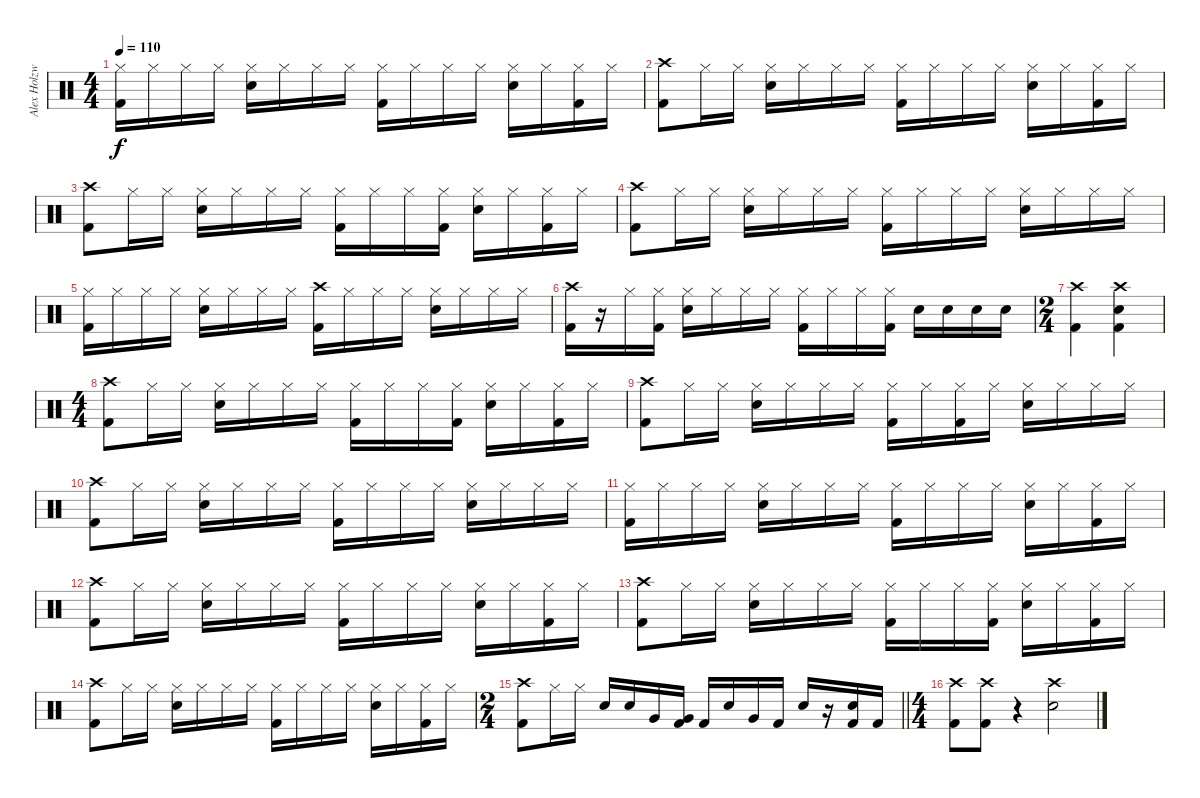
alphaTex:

\track ("Alex Holzwarth (Drums)" "Alex Holzw") {instrument percussion}
\staff {score}
\articulation defaults
\ts (4 4)
\tempo 110
\clef neutral
\ks c
("Hi-Hat (closed)" "Kick (hit) 2").16{dy f} "Hi-Hat (closed)".16 "Hi-Hat (closed)".16 "Hi-Hat (closed)".16 ("Hi-Hat (closed)" "Electric Snare (hit)").16 "Hi-Hat (closed)".16 "Hi-Hat (closed)".16 "Hi-Hat (closed)".16 ("Hi-Hat (closed)" "Kick (hit) 2").16 "Hi-Hat (closed)".16 "Hi-Hat (closed)".16 "Hi-Hat (closed)".16 ("Hi-Hat (closed)" "Electric Snare (hit)").16 "Hi-Hat (closed)".16 ("Hi-Hat (closed)" "Kick (hit) 2").16 "Hi-Hat (closed)".16 |
("Crash high (hit)" "Kick (hit) 2").8 "Hi-Hat (closed)".16 "Hi-Hat (closed)".16 ("Hi-Hat (closed)" "Electric Snare (hit)").16 "Hi-Hat (closed)".16 "Hi-Hat (closed)".16 "Hi-Hat (closed)".16 ("Hi-Hat (closed)" "Kick (hit) 2").16 "Hi-Hat (closed)".16 "Hi-Hat (closed)".16 "Hi-Hat (closed)".16 ("Hi-Hat (closed)" "Electric Snare (hit)").16 "Hi-Hat (closed)".16 ("Hi-Hat (closed)" "Kick (hit) 2").16 "Hi-Hat (closed)".16 |
("Crash high (hit)" "Kick (hit) 2").8 "Hi-Hat (closed)".16 "Hi-Hat (closed)".16 ("Hi-Hat (closed)" "Electric Snare (hit)").16 "Hi-Hat (closed)".16 "Hi-Hat (closed)".16 "Hi-Hat (closed)".16 ("Hi-Hat (closed)" "Kick (hit) 2").16 "Hi-Hat (closed)".16 "Hi-Hat (closed)".16 ("Hi-Hat (closed)" "Kick (hit) 2").16 ("Hi-Hat (closed)" "Electric Snare (hit)").16 "Hi-Hat (closed)".16 ("Hi-Hat (closed)" "Kick (hit) 2").16 "Hi-Hat (closed)".16 |
("Crash high (hit)" "Kick (hit) 2").8 "Hi-Hat (closed)".16 "Hi-Hat (closed)".16 ("Hi-Hat (closed)" "Electric Snare (hit)").16 "Hi-Hat (closed)".16 "Hi-Hat (closed)".16 "Hi-Hat (closed)".16 ("Hi-Hat (closed)" "Kick (hit) 2").16 "Hi-Hat (closed)".16 "Hi-Hat (closed)".16 "Hi-Hat (closed)".16 ("Hi-Hat (closed)" "Electric Snare (hit)").16 "Hi-Hat (closed)".16 "Hi-Hat (closed)".16 "Hi-Hat (closed)".16 |
("Hi-Hat (closed)" "Kick (hit) 2").16 "Hi-Hat (closed)".16 "Hi-Hat (closed)".16 "Hi-Hat (closed)".16 ("Hi-Hat (closed)" "Electric Snare (hit)").16 "Hi-Hat (closed)".16 "Hi-Hat (closed)".16 "Hi-Hat (closed)".16 ("Crash high (hit)" "Kick (hit) 2").16 "Hi-Hat (closed)".16 "Hi-Hat (closed)".16 "Hi-Hat (closed)".16 ("Hi-Hat (closed)" "Electric Snare (hit)").16 "Hi-Hat (closed)".16 "Hi-Hat (closed)".16 "Hi-Hat (closed)".16 |
("Crash high (hit)" "Kick (hit) 2").16 r.16 "Hi-Hat (closed)".16 ("Hi-Hat (closed)" "Kick (hit) 2").16 ("Hi-Hat (closed)" "Electric Snare (hit)").16 "Hi-Hat (closed)".16 "Hi-Hat (closed)".16 "Hi-Hat (closed)".16 ("Hi-Hat (closed)" "Kick (hit) 2").16 "Hi-Hat (closed)".16 "Hi-Hat (closed)".16 ("Hi-Hat (closed)" "Kick (hit) 2").16 "Electric Snare (hit)".16 "Electric Snare (hit)".16 "Electric Snare (hit)".16 "Electric Snare (hit)".16 |
\ts (2 4)
("Crash high (hit)" "Kick (hit) 2").4 ("Crash high (hit)" "Electric Snare (hit)" "Kick (hit) 2").4 |
\ts (4 4)
("Crash high (hit)" "Kick (hit) 2").8 "Hi-Hat (closed)".16 "Hi-Hat (closed)".16 ("Hi-Hat (closed)" "Electric Snare (hit)").16 "Hi-Hat (closed)".16 "Hi-Hat (closed)".16 "Hi-Hat (closed)".16 ("Hi-Hat (closed)" "Kick (hit) 2").16 "Hi-Hat (closed)".16 "Hi-Hat (closed)".16 ("Hi-Hat (closed)" "Kick (hit) 2").16 ("Hi-Hat (closed)" "Electric Snare (hit)").16 "Hi-Hat (closed)".16 ("Hi-Hat (closed)" "Kick (hit) 2").16 "Hi-Hat (closed)".16 |
("Crash high (hit)" "Kick (hit) 2").8 "Hi-Hat (closed)".16 "Hi-Hat (closed)".16 ("Hi-Hat (closed)" "Electric Snare (hit)").16 "Hi-Hat (closed)".16 "Hi-Hat (closed)".16 "Hi-Hat (closed)".16 ("Hi-Hat (closed)" "Kick (hit) 2").16 "Hi-Hat (closed)".16 ("Hi-Hat (closed)" "Kick (hit) 2").16 "Hi-Hat (closed)".16 ("Hi-Hat (closed)" "Electric Snare (hit)").16 "Hi-Hat (closed)".16 "Hi-Hat (closed)".16 "Hi-Hat (closed)".16 |
("Crash high (hit)" "Kick (hit) 2").8 "Hi-Hat (closed)".16 "Hi-Hat (closed)".16 ("Hi-Hat (closed)" "Electric Snare (hit)").16 "Hi-Hat (closed)".16 "Hi-Hat (closed)".16 "Hi-Hat (closed)".16 ("Hi-Hat (closed)" "Kick (hit) 2").16 "Hi-Hat (closed)".16 "Hi-Hat (closed)".16 "Hi-Hat (closed)".16 ("Hi-Hat (closed)" "Electric Snare (hit)").16 "Hi-Hat (closed)".16 "Hi-Hat (closed)".16 "Hi-Hat (closed)".16 |
("Hi-Hat (closed)" "Kick (hit) 2").16 "Hi-Hat (closed)".16 "Hi-Hat (closed)".16 "Hi-Hat (closed)".16 ("Hi-Hat (closed)" "Electric Snare (hit)").16 "Hi-Hat (closed)".16 "Hi-Hat (closed)".16 "Hi-Hat (closed)".16 ("Hi-Hat (closed)" "Kick (hit) 2").16 "Hi-Hat (closed)".16 "Hi-Hat (closed)".16 "Hi-Hat (closed)".16 ("Hi-Hat (closed)" "Electric Snare (hit)").16 "Hi-Hat (closed)".16 ("Hi-Hat (closed)" "Kick (hit) 2").16 "Hi-Hat (closed)".16 |
("Crash high (hit)" "Kick (hit) 2").8 "Hi-Hat (closed)".16 "Hi-Hat (closed)".16 ("Hi-Hat (closed)" "Electric Snare (hit)").16 "Hi-Hat (closed)".16 "Hi-Hat (closed)".16 "Hi-Hat (closed)".16 ("Hi-Hat (closed)" "Kick (hit) 2").16 "Hi-Hat (closed)".16 "Hi-Hat (closed)".16 "Hi-Hat (closed)".16 ("Hi-Hat (closed)" "Electric Snare (hit)").16 "Hi-Hat (closed)".16 ("Hi-Hat (closed)" "Kick (hit) 2").16 "Hi-Hat (closed)".16 |
("Crash high (hit)" "Kick (hit) 2").8 "Hi-Hat (closed)".16 "Hi-Hat (closed)".16 ("Hi-Hat (closed)" "Electric Snare (hit)").16 "Hi-Hat (closed)".16 "Hi-Hat (closed)".16 "Hi-Hat (closed)".16 ("Hi-Hat (closed)" "Kick (hit) 2").16 "Hi-Hat (closed)".16 "Hi-Hat (closed)".16 ("Hi-Hat (closed)" "Kick (hit) 2").16 ("Hi-Hat (closed)" "Electric Snare (hit)").16 "Hi-Hat (closed)".16 ("Hi-Hat (closed)" "Kick (hit) 2").16 "Hi-Hat (closed)".16 |
("Crash high (hit)" "Kick (hit) 2").8 "Hi-Hat (closed)".16 "Hi-Hat (closed)".16 ("Hi-Hat (closed)" "Electric Snare (hit)").16 "Hi-Hat (closed)".16 "Hi-Hat (closed)".16 "Hi-Hat (closed)".16 ("Hi-Hat (closed)" "Kick (hit) 2").16 "Hi-Hat (closed)".16 "Hi-Hat (closed)".16 "Hi-Hat (closed)".16 ("Hi-Hat (closed)" "Electric Snare (hit)").16 "Hi-Hat (closed)".16 ("Hi-Hat (closed)" "Kick (hit) 2").16 "Hi-Hat (closed)".16 |
\ts (2 4)
\barLineRight lightlight
("Crash high (hit)" "Kick (hit) 2").8 "Hi-Hat (closed)".16 "Hi-Hat (closed)".16 "Electric Snare (hit)".16 "Electric Snare (hit)".16 "Very Low Tom (hit)".16 ("Very Low Tom (hit)" "Kick (hit) 2").16 "Kick (hit) 2".16 "Electric Snare (hit)".16 "Very Low Tom (hit)".16 "Kick (hit) 2".16 "Electric Snare (hit)".16 r.16 ("Electric Snare (hit)" "Kick (hit) 2").16 "Kick (hit) 2".16 |
\ts (4 4)
("Crash high (hit)" "Kick (hit) 2").8 ("Crash high (hit)" "Kick (hit) 2").8 r.4 ("Crash high (hit)" "Electric Snare (hit)").2
